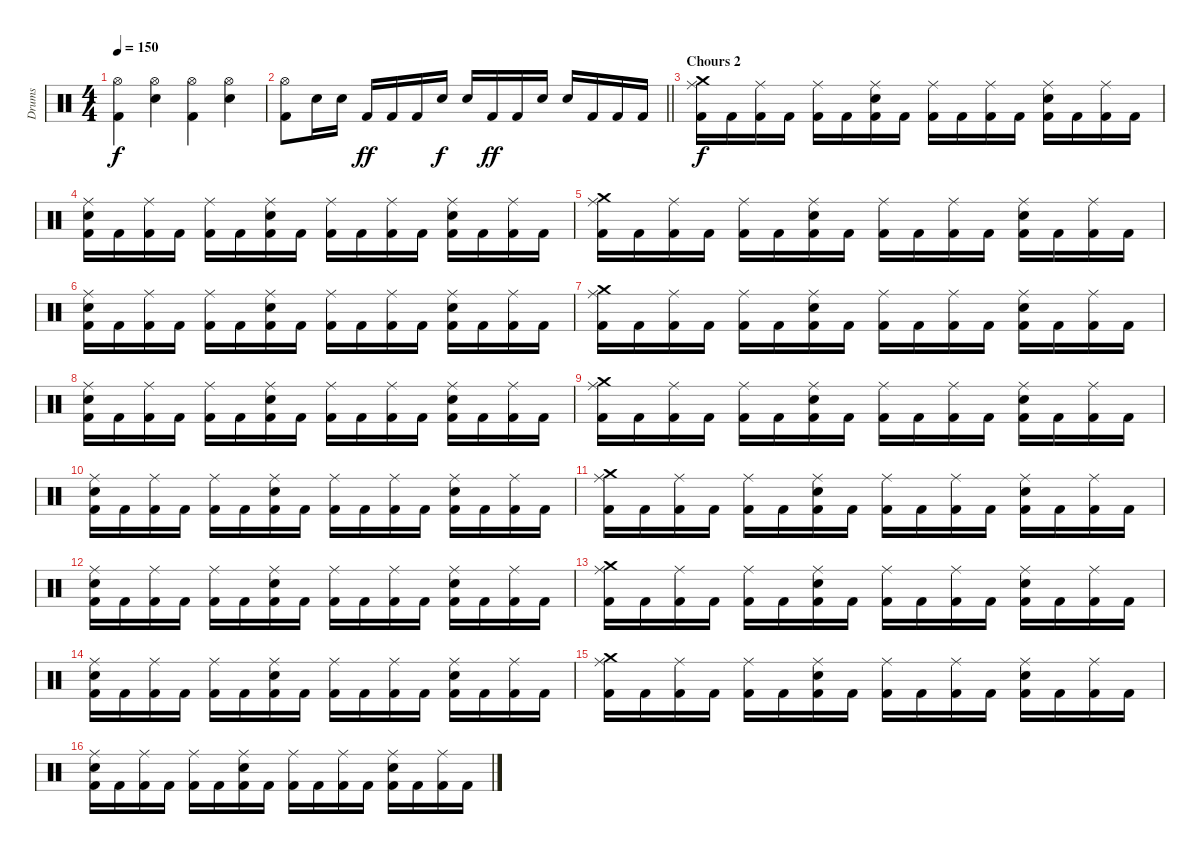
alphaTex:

\track ("Drums" "Drums") {instrument percussion}
\staff {score}
\articulation defaults
\ts (4 4)
\tempo 150
\clef neutral
\ks c
("Hi-Hat (open)" "Kick (hit) 2").4{dy f} ("Hi-Hat (open)" "Electric Snare (hit)").4 ("Hi-Hat (open)" "Kick (hit) 2").4 ("Hi-Hat (open)" "Electric Snare (hit)").4 |
\barLineRight lightlight
("Hi-Hat (open)" "Kick (hit) 2").8 "Electric Snare (hit)".16 "Electric Snare (hit)".16 "Kick (hit) 2".16{dy ff} "Kick (hit) 2".16 "Kick (hit) 2".16 "Electric Snare (hit)".16{dy f} "Electric Snare (hit)".16 "Kick (hit) 2".16{dy ff} "Kick (hit) 2".16 "Electric Snare (hit)".16 "Electric Snare (hit)".16 "Kick (hit) 2".16 "Kick (hit) 2".16 "Kick (hit) 2".16 |
\section ("" "Chours 2")
("Crash medium (hit)" "Ride (middle)" "Kick (hit) 2").16{dy f} "Kick (hit) 2".16 ("Ride (middle)" "Kick (hit) 2").16 "Kick (hit) 2".16 ("Ride (middle)" "Kick (hit) 2").16 "Kick (hit) 2".16 ("Ride (middle)" "Electric Snare (hit)" "Kick (hit) 2").16 "Kick (hit) 2".16 ("Ride (middle)" "Kick (hit) 2").16 "Kick (hit) 2".16 ("Ride (middle)" "Kick (hit) 2").16 "Kick (hit) 2".16 ("Ride (middle)" "Electric Snare (hit)" "Kick (hit) 2").16 "Kick (hit) 2".16 ("Ride (middle)" "Kick (hit) 2").16 "Kick (hit) 2".16 |
("Ride (middle)" "Electric Snare (hit)" "Kick (hit) 2").16 "Kick (hit) 2".16 ("Ride (middle)" "Kick (hit) 2").16 "Kick (hit) 2".16 ("Ride (middle)" "Kick (hit) 2").16 "Kick (hit) 2".16 ("Ride (middle)" "Electric Snare (hit)" "Kick (hit) 2").16 "Kick (hit) 2".16 ("Ride (middle)" "Kick (hit) 2").16 "Kick (hit) 2".16 ("Ride (middle)" "Kick (hit) 2").16 "Kick (hit) 2".16 ("Ride (middle)" "Electric Snare (hit)" "Kick (hit) 2").16 "Kick (hit) 2".16 ("Ride (middle)" "Kick (hit) 2").16 "Kick (hit) 2".16 |
("Crash medium (hit)" "Ride (middle)" "Kick (hit) 2").16 "Kick (hit) 2".16 ("Ride (middle)" "Kick (hit) 2").16 "Kick (hit) 2".16 ("Ride (middle)" "Kick (hit) 2").16 "Kick (hit) 2".16 ("Ride (middle)" "Electric Snare (hit)" "Kick (hit) 2").16 "Kick (hit) 2".16 ("Ride (middle)" "Kick (hit) 2").16 "Kick (hit) 2".16 ("Ride (middle)" "Kick (hit) 2").16 "Kick (hit) 2".16 ("Ride (middle)" "Electric Snare (hit)" "Kick (hit) 2").16 "Kick (hit) 2".16 ("Ride (middle)" "Kick (hit) 2").16 "Kick (hit) 2".16 |
("Ride (middle)" "Electric Snare (hit)" "Kick (hit) 2").16 "Kick (hit) 2".16 ("Ride (middle)" "Kick (hit) 2").16 "Kick (hit) 2".16 ("Ride (middle)" "Kick (hit) 2").16 "Kick (hit) 2".16 ("Ride (middle)" "Electric Snare (hit)" "Kick (hit) 2").16 "Kick (hit) 2".16 ("Ride (middle)" "Kick (hit) 2").16 "Kick (hit) 2".16 ("Ride (middle)" "Kick (hit) 2").16 "Kick (hit) 2".16 ("Ride (middle)" "Electric Snare (hit)" "Kick (hit) 2").16 "Kick (hit) 2".16 ("Ride (middle)" "Kick (hit) 2").16 "Kick (hit) 2".16 |
("Crash medium (hit)" "Ride (middle)" "Kick (hit) 2").16 "Kick (hit) 2".16 ("Ride (middle)" "Kick (hit) 2").16 "Kick (hit) 2".16 ("Ride (middle)" "Kick (hit) 2").16 "Kick (hit) 2".16 ("Ride (middle)" "Electric Snare (hit)" "Kick (hit) 2").16 "Kick (hit) 2".16 ("Ride (middle)" "Kick (hit) 2").16 "Kick (hit) 2".16 ("Ride (middle)" "Kick (hit) 2").16 "Kick (hit) 2".16 ("Ride (middle)" "Electric Snare (hit)" "Kick (hit) 2").16 "Kick (hit) 2".16 ("Ride (middle)" "Kick (hit) 2").16 "Kick (hit) 2".16 |
("Ride (middle)" "Electric Snare (hit)" "Kick (hit) 2").16 "Kick (hit) 2".16 ("Ride (middle)" "Kick (hit) 2").16 "Kick (hit) 2".16 ("Ride (middle)" "Kick (hit) 2").16 "Kick (hit) 2".16 ("Ride (middle)" "Electric Snare (hit)" "Kick (hit) 2").16 "Kick (hit) 2".16 ("Ride (middle)" "Kick (hit) 2").16 "Kick (hit) 2".16 ("Ride (middle)" "Kick (hit) 2").16 "Kick (hit) 2".16 ("Ride (middle)" "Electric Snare (hit)" "Kick (hit) 2").16 "Kick (hit) 2".16 ("Ride (middle)" "Kick (hit) 2").16 "Kick (hit) 2".16 |
("Crash medium (hit)" "Ride (middle)" "Kick (hit) 2").16 "Kick (hit) 2".16 ("Ride (middle)" "Kick (hit) 2").16 "Kick (hit) 2".16 ("Ride (middle)" "Kick (hit) 2").16 "Kick (hit) 2".16 ("Ride (middle)" "Electric Snare (hit)" "Kick (hit) 2").16 "Kick (hit) 2".16 ("Ride (middle)" "Kick (hit) 2").16 "Kick (hit) 2".16 ("Ride (middle)" "Kick (hit) 2").16 "Kick (hit) 2".16 ("Ride (middle)" "Electric Snare (hit)" "Kick (hit) 2").16 "Kick (hit) 2".16 ("Ride (middle)" "Kick (hit) 2").16 "Kick (hit) 2".16 |
("Ride (middle)" "Electric Snare (hit)" "Kick (hit) 2").16 "Kick (hit) 2".16 ("Ride (middle)" "Kick (hit) 2").16 "Kick (hit) 2".16 ("Ride (middle)" "Kick (hit) 2").16 "Kick (hit) 2".16 ("Ride (middle)" "Electric Snare (hit)" "Kick (hit) 2").16 "Kick (hit) 2".16 ("Ride (middle)" "Kick (hit) 2").16 "Kick (hit) 2".16 ("Ride (middle)" "Kick (hit) 2").16 "Kick (hit) 2".16 ("Ride (middle)" "Electric Snare (hit)" "Kick (hit) 2").16 "Kick (hit) 2".16 ("Ride (middle)" "Kick (hit) 2").16 "Kick (hit) 2".16 |
("Crash medium (hit)" "Ride (middle)" "Kick (hit) 2").16 "Kick (hit) 2".16 ("Ride (middle)" "Kick (hit) 2").16 "Kick (hit) 2".16 ("Ride (middle)" "Kick (hit) 2").16 "Kick (hit) 2".16 ("Ride (middle)" "Electric Snare (hit)" "Kick (hit) 2").16 "Kick (hit) 2".16 ("Ride (middle)" "Kick (hit) 2").16 "Kick (hit) 2".16 ("Ride (middle)" "Kick (hit) 2").16 "Kick (hit) 2".16 ("Ride (middle)" "Electric Snare (hit)" "Kick (hit) 2").16 "Kick (hit) 2".16 ("Ride (middle)" "Kick (hit) 2").16 "Kick (hit) 2".16 |
("Ride (middle)" "Electric Snare (hit)" "Kick (hit) 2").16 "Kick (hit) 2".16 ("Ride (middle)" "Kick (hit) 2").16 "Kick (hit) 2".16 ("Ride (middle)" "Kick (hit) 2").16 "Kick (hit) 2".16 ("Ride (middle)" "Electric Snare (hit)" "Kick (hit) 2").16 "Kick (hit) 2".16 ("Ride (middle)" "Kick (hit) 2").16 "Kick (hit) 2".16 ("Ride (middle)" "Kick (hit) 2").16 "Kick (hit) 2".16 ("Ride (middle)" "Electric Snare (hit)" "Kick (hit) 2").16 "Kick (hit) 2".16 ("Ride (middle)" "Kick (hit) 2").16 "Kick (hit) 2".16 |
("Crash medium (hit)" "Ride (middle)" "Kick (hit) 2").16 "Kick (hit) 2".16 ("Ride (middle)" "Kick (hit) 2").16 "Kick (hit) 2".16 ("Ride (middle)" "Kick (hit) 2").16 "Kick (hit) 2".16 ("Ride (middle)" "Electric Snare (hit)" "Kick (hit) 2").16 "Kick (hit) 2".16 ("Ride (middle)" "Kick (hit) 2").16 "Kick (hit) 2".16 ("Ride (middle)" "Kick (hit) 2").16 "Kick (hit) 2".16 ("Ride (middle)" "Electric Snare (hit)" "Kick (hit) 2").16 "Kick (hit) 2".16 ("Ride (middle)" "Kick (hit) 2").16 "Kick (hit) 2".16 |
("Ride (middle)" "Electric Snare (hit)" "Kick (hit) 2").16 "Kick (hit) 2".16 ("Ride (middle)" "Kick (hit) 2").16 "Kick (hit) 2".16 ("Ride (middle)" "Kick (hit) 2").16 "Kick (hit) 2".16 ("Ride (middle)" "Electric Snare (hit)" "Kick (hit) 2").16 "Kick (hit) 2".16 ("Ride (middle)" "Kick (hit) 2").16 "Kick (hit) 2".16 ("Ride (middle)" "Kick (hit) 2").16 "Kick (hit) 2".16 ("Ride (middle)" "Electric Snare (hit)" "Kick (hit) 2").16 "Kick (hit) 2".16 ("Ride (middle)" "Kick (hit) 2").16 "Kick (hit) 2".16 |
("Crash medium (hit)" "Ride (middle)" "Kick (hit) 2").16 "Kick (hit) 2".16 ("Ride (middle)" "Kick (hit) 2").16 "Kick (hit) 2".16 ("Ride (middle)" "Kick (hit) 2").16 "Kick (hit) 2".16 ("Ride (middle)" "Electric Snare (hit)" "Kick (hit) 2").16 "Kick (hit) 2".16 ("Ride (middle)" "Kick (hit) 2").16 "Kick (hit) 2".16 ("Ride (middle)" "Kick (hit) 2").16 "Kick (hit) 2".16 ("Ride (middle)" "Electric Snare (hit)" "Kick (hit) 2").16 "Kick (hit) 2".16 ("Ride (middle)" "Kick (hit) 2").16 "Kick (hit) 2".16 |
("Ride (middle)" "Electric Snare (hit)" "Kick (hit) 2").16 "Kick (hit) 2".16 ("Ride (middle)" "Kick (hit) 2").16 "Kick (hit) 2".16 ("Ride (middle)" "Kick (hit) 2").16 "Kick (hit) 2".16 ("Ride (middle)" "Electric Snare (hit)" "Kick (hit) 2").16 "Kick (hit) 2".16 ("Ride (middle)" "Kick (hit) 2").16 "Kick (hit) 2".16 ("Ride (middle)" "Kick (hit) 2").16 "Kick (hit) 2".16 ("Ride (middle)" "Electric Snare (hit)" "Kick (hit) 2").16 "Kick (hit) 2".16 ("Ride (middle)" "Kick (hit) 2").16 "Kick (hit) 2".16
